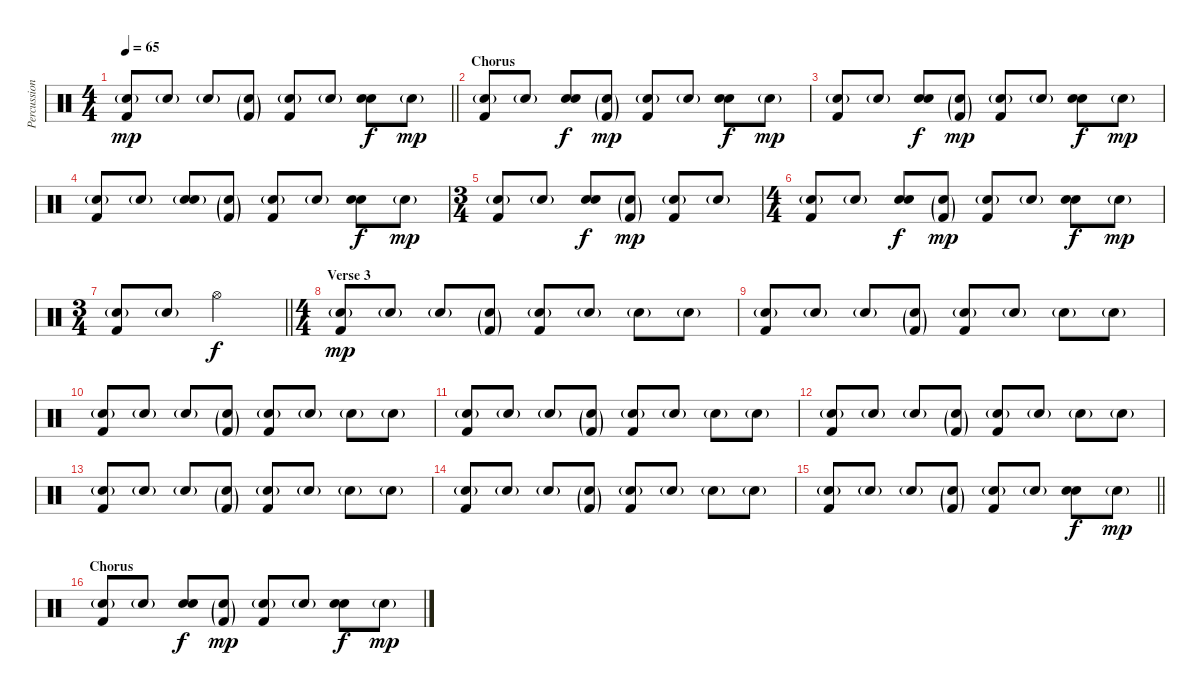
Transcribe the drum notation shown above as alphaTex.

\track ("Percussion" "Percussion") {instrument percussion}
\staff {score}
\articulation defaults
\ts (4 4)
\tempo 65
\clef neutral
\barLineRight lightlight
\ks c
("Snare (hit) 2"{g} "Kick (hit) 2").8{dy mp} "Snare (hit) 2"{g}.8 "Snare (hit) 2"{g}.8 ("Snare (hit) 2"{g} "Kick (hit) 2"{g}).8 ("Snare (hit) 2"{g} "Kick (hit) 2").8 "Snare (hit) 2"{g}.8 ("Hand Clap (hit)" "Snare (hit) 2").8{dy f} "Snare (hit) 2"{g}.8{dy mp} |
\section ("" "Chorus")
("Snare (hit) 2"{g} "Kick (hit) 2").8 "Snare (hit) 2"{g}.8 ("Hand Clap (hit)" "Snare (hit) 2").8{dy f} ("Snare (hit) 2"{g} "Kick (hit) 2"{g}).8{dy mp} ("Snare (hit) 2"{g} "Kick (hit) 2").8 "Snare (hit) 2"{g}.8 ("Hand Clap (hit)" "Snare (hit) 2").8{dy f} "Snare (hit) 2"{g}.8{dy mp} |
("Snare (hit) 2"{g} "Kick (hit) 2").8 "Snare (hit) 2"{g}.8 ("Hand Clap (hit)" "Snare (hit) 2").8{dy f} ("Snare (hit) 2"{g} "Kick (hit) 2"{g}).8{dy mp} ("Snare (hit) 2"{g} "Kick (hit) 2").8 "Snare (hit) 2"{g}.8 ("Hand Clap (hit)" "Snare (hit) 2").8{dy f} "Snare (hit) 2"{g}.8{dy mp} |
("Snare (hit) 2"{g} "Kick (hit) 2").8 "Snare (hit) 2"{g}.8 ("Hand Clap (hit)" "Snare (hit) 2"{g}).8 ("Snare (hit) 2"{g} "Kick (hit) 2"{g}).8 ("Snare (hit) 2"{g} "Kick (hit) 2").8 "Snare (hit) 2"{g}.8 ("Hand Clap (hit)" "Snare (hit) 2").8{dy f} "Snare (hit) 2"{g}.8{dy mp} |
\ts (3 4)
("Snare (hit) 2"{g} "Kick (hit) 2").8 "Snare (hit) 2"{g}.8 ("Hand Clap (hit)" "Snare (hit) 2").8{dy f} ("Snare (hit) 2"{g} "Kick (hit) 2"{g}).8{dy mp} ("Snare (hit) 2"{g} "Kick (hit) 2").8 "Snare (hit) 2"{g}.8 |
\ts (4 4)
("Snare (hit) 2"{g} "Kick (hit) 2").8 "Snare (hit) 2"{g}.8 ("Hand Clap (hit)" "Snare (hit) 2").8{dy f} ("Snare (hit) 2"{g} "Kick (hit) 2"{g}).8{dy mp} ("Snare (hit) 2"{g} "Kick (hit) 2").8 "Snare (hit) 2"{g}.8 ("Hand Clap (hit)" "Snare (hit) 2").8{dy f} "Snare (hit) 2"{g}.8{dy mp} |
\ts (3 4)
\barLineRight lightlight
("Snare (hit) 2"{g} "Kick (hit) 2").8 "Snare (hit) 2"{g}.8 "Hi-Hat (open)".2{dy f} |
\ts (4 4)
\section ("" "Verse 3")
("Snare (hit) 2"{g} "Kick (hit) 2").8{dy mp} "Snare (hit) 2"{g}.8 "Snare (hit) 2"{g}.8 ("Snare (hit) 2"{g} "Kick (hit) 2"{g}).8 ("Snare (hit) 2"{g} "Kick (hit) 2").8 "Snare (hit) 2"{g}.8 "Snare (hit) 2"{g}.8 "Snare (hit) 2"{g}.8 |
("Snare (hit) 2"{g} "Kick (hit) 2").8 "Snare (hit) 2"{g}.8 "Snare (hit) 2"{g}.8 ("Snare (hit) 2"{g} "Kick (hit) 2"{g}).8 ("Snare (hit) 2"{g} "Kick (hit) 2").8 "Snare (hit) 2"{g}.8 "Snare (hit) 2"{g}.8 "Snare (hit) 2"{g}.8 |
("Snare (hit) 2"{g} "Kick (hit) 2").8 "Snare (hit) 2"{g}.8 "Snare (hit) 2"{g}.8 ("Snare (hit) 2"{g} "Kick (hit) 2"{g}).8 ("Snare (hit) 2"{g} "Kick (hit) 2").8 "Snare (hit) 2"{g}.8 "Snare (hit) 2"{g}.8 "Snare (hit) 2"{g}.8 |
("Snare (hit) 2"{g} "Kick (hit) 2").8 "Snare (hit) 2"{g}.8 "Snare (hit) 2"{g}.8 ("Snare (hit) 2"{g} "Kick (hit) 2"{g}).8 ("Snare (hit) 2"{g} "Kick (hit) 2").8 "Snare (hit) 2"{g}.8 "Snare (hit) 2"{g}.8 "Snare (hit) 2"{g}.8 |
("Snare (hit) 2"{g} "Kick (hit) 2").8 "Snare (hit) 2"{g}.8 "Snare (hit) 2"{g}.8 ("Snare (hit) 2"{g} "Kick (hit) 2"{g}).8 ("Snare (hit) 2"{g} "Kick (hit) 2").8 "Snare (hit) 2"{g}.8 "Snare (hit) 2"{g}.8 "Snare (hit) 2"{g}.8 |
("Snare (hit) 2"{g} "Kick (hit) 2").8 "Snare (hit) 2"{g}.8 "Snare (hit) 2"{g}.8 ("Snare (hit) 2"{g} "Kick (hit) 2"{g}).8 ("Snare (hit) 2"{g} "Kick (hit) 2").8 "Snare (hit) 2"{g}.8 "Snare (hit) 2"{g}.8 "Snare (hit) 2"{g}.8 |
("Snare (hit) 2"{g} "Kick (hit) 2").8 "Snare (hit) 2"{g}.8 "Snare (hit) 2"{g}.8 ("Snare (hit) 2"{g} "Kick (hit) 2"{g}).8 ("Snare (hit) 2"{g} "Kick (hit) 2").8 "Snare (hit) 2"{g}.8 "Snare (hit) 2"{g}.8 "Snare (hit) 2"{g}.8 |
\barLineRight lightlight
("Snare (hit) 2"{g} "Kick (hit) 2").8 "Snare (hit) 2"{g}.8 "Snare (hit) 2"{g}.8 ("Snare (hit) 2"{g} "Kick (hit) 2"{g}).8 ("Snare (hit) 2"{g} "Kick (hit) 2").8 "Snare (hit) 2"{g}.8 ("Hand Clap (hit)" "Snare (hit) 2").8{dy f} "Snare (hit) 2"{g}.8{dy mp} |
\section ("" "Chorus")
("Snare (hit) 2"{g} "Kick (hit) 2").8 "Snare (hit) 2"{g}.8 ("Hand Clap (hit)" "Snare (hit) 2").8{dy f} ("Snare (hit) 2"{g} "Kick (hit) 2"{g}).8{dy mp} ("Snare (hit) 2"{g} "Kick (hit) 2").8 "Snare (hit) 2"{g}.8 ("Hand Clap (hit)" "Snare (hit) 2").8{dy f} "Snare (hit) 2"{g}.8{dy mp}
